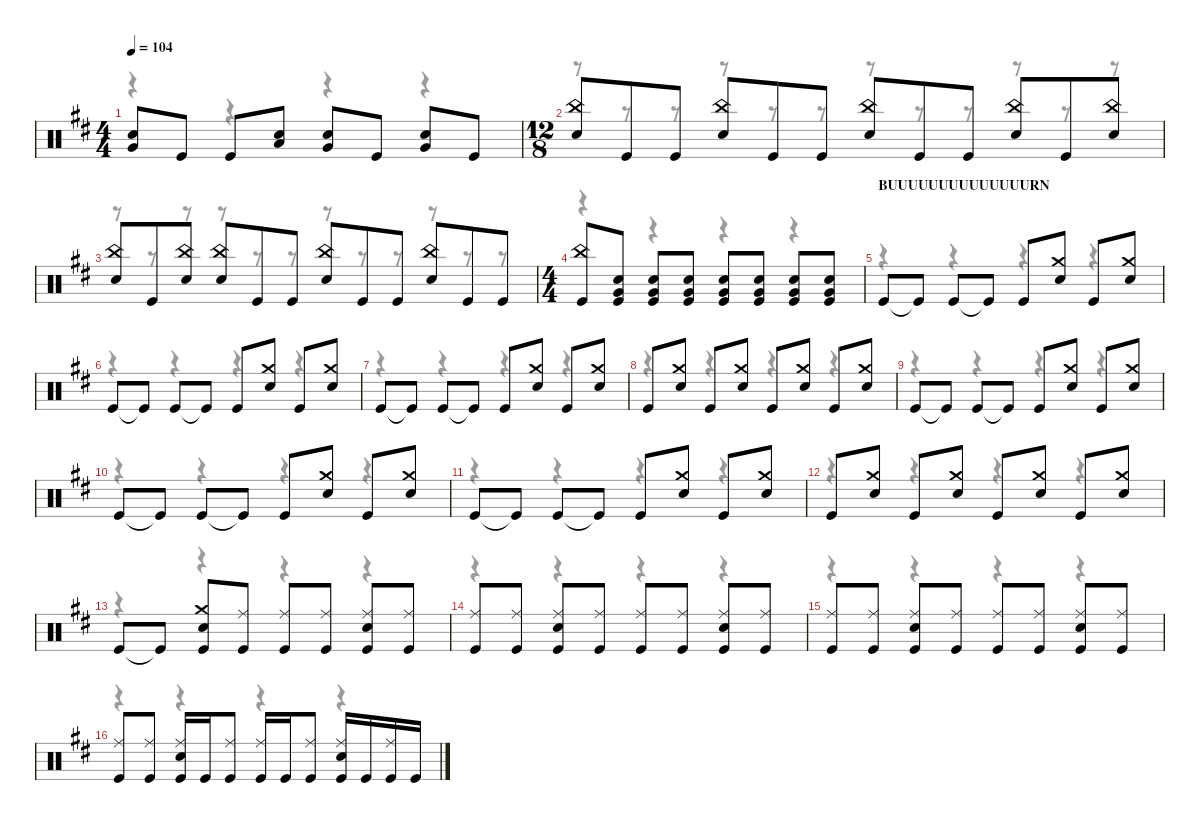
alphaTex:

\defaultSystemsLayout 4
\hideDynamics
\bracketExtendMode nobrackets
\singleTrackTrackNamePolicy hidden
\multiTrackTrackNamePolicy hidden
\firstSystemTrackNameMode fullname
\otherSystemsTrackNameOrientation horizontal
\track ("Drums" "drm.") {instrument percussion}
\staff {score}
\articulation defaults
\voice
\ts (4 4)
\beaming (8 2 2 2 2)
\tempo 104
\clef neutral
\ks bminor
("Snare (hit) 2"{acc forcenatural} "Very Low Tom (hit)"{acc forcenatural}).8{dy f beam Up} "Kick (hit)"{acc forcenatural}.8{beam Up} "Kick (hit)"{acc forcenatural}.8{beam Up} ("Snare (hit) 2"{acc forcenatural} "Low Tom (hit)"{acc forcenatural}).8{beam Up} ("Snare (hit) 2"{acc forcenatural} "Very Low Tom (hit)"{acc forcenatural}).8{beam Up} "Kick (hit)"{acc forcenatural}.8{beam Up} ("Snare (hit) 2"{acc forcenatural} "Very Low Tom (hit)"{acc forcenatural}).8{beam Up} "Kick (hit)"{acc forcenatural}.8{beam Up} |
\ts (12 8)
\beaming (8 3 3 3 3)
("Snare (hit) 2"{acc forcenatural} "China (hit)"{acc forcenatural}).8{beam Up} "Kick (hit)"{acc forcenatural}.8{beam Up} "Kick (hit)"{acc forcenatural}.8{beam Up} ("Snare (hit) 2"{acc forcenatural} "China (hit)"{acc forcenatural}).8{beam Up} "Kick (hit)"{acc forcenatural}.8{beam Up} "Kick (hit)"{acc forcenatural}.8{beam Up} ("Snare (hit) 2"{acc forcenatural} "China (hit)"{acc forcenatural}).8{beam Up} "Kick (hit)"{acc forcenatural}.8{beam Up} "Kick (hit)"{acc forcenatural}.8{beam Up} ("Snare (hit) 2"{acc forcenatural} "China (hit)"{acc forcenatural}).8{beam Up} "Kick (hit)"{acc forcenatural}.8{beam Up} ("Snare (hit) 2"{acc forcenatural} "China (hit)"{acc forcenatural}).8{beam Up} |
("Snare (hit) 2"{acc forcenatural} "China (hit)"{acc forcenatural}).8{beam Up} "Kick (hit)"{acc forcenatural}.8{beam Up} ("Snare (hit) 2"{acc forcenatural} "China (hit)"{acc forcenatural}).8{beam Up} ("Snare (hit) 2"{acc forcenatural} "China (hit)"{acc forcenatural}).8{beam Up} "Kick (hit)"{acc forcenatural}.8{beam Up} "Kick (hit)"{acc forcenatural}.8{beam Up} ("Snare (hit) 2"{acc forcenatural} "China (hit)"{acc forcenatural}).8{beam Up} "Kick (hit)"{acc forcenatural}.8{beam Up} "Kick (hit)"{acc forcenatural}.8{beam Up} ("Snare (hit) 2"{acc forcenatural} "China (hit)"{acc forcenatural}).8{beam Up} "Kick (hit)"{acc forcenatural}.8{beam Up} "Kick (hit)"{acc forcenatural}.8{beam Up} |
\ts (4 4)
\beaming (8 2 2 2 2)
("Kick (hit)"{acc forcenatural} "China (hit)"{acc forcenatural}).8{beam Up} ("Kick (hit)"{acc forcenatural} "Very Low Tom (hit)"{acc forcenatural} "Snare (hit) 2"{acc forcenatural}).8{dy ppp beam Up} ("Kick (hit)"{acc forcenatural} "Very Low Tom (hit)"{acc forcenatural} "Snare (hit) 2"{acc forcenatural}).8{dy pp beam Up} ("Kick (hit)"{acc forcenatural} "Very Low Tom (hit)"{acc forcenatural} "Snare (hit) 2"{acc forcenatural}).8{dy p beam Up} ("Kick (hit)"{acc forcenatural} "Very Low Tom (hit)"{acc forcenatural} "Snare (hit) 2"{acc forcenatural}).8{dy mp beam Up} ("Kick (hit)"{acc forcenatural} "Very Low Tom (hit)"{acc forcenatural} "Snare (hit) 2"{acc forcenatural}).8{dy mf beam Up} ("Kick (hit)"{acc forcenatural} "Very Low Tom (hit)"{acc forcenatural} "Snare (hit) 2"{acc forcenatural}).8{dy f beam Up} ("Kick (hit)"{acc forcenatural} "Very Low Tom (hit)"{acc forcenatural} "Snare (hit) 2"{acc forcenatural}).8{beam Up} |
\section ("" "BUUUUUUUUUUUUUURN")
"Kick (hit)"{acc forcenatural}.8{beam Up} "Kick (hit)"{t acc forcenatural}.8{beam Up} "Kick (hit)"{acc forcenatural}.8{beam Up} "Kick (hit)"{t acc forcenatural}.8{beam Up} "Kick (hit)"{acc forcenatural}.8{beam Up} ("Snare (hit) 2"{acc forcenatural} "Crash medium (hit)"{acc forcenatural}).8{beam Up} "Kick (hit)"{acc forcenatural}.8{beam Up} ("Snare (hit) 2"{acc forcenatural} "Crash medium (hit)"{acc forcenatural}).8{beam Up} |
"Kick (hit)"{acc forcenatural}.8{beam Up} "Kick (hit)"{t acc forcenatural}.8{beam Up} "Kick (hit)"{acc forcenatural}.8{beam Up} "Kick (hit)"{t acc forcenatural}.8{beam Up} "Kick (hit)"{acc forcenatural}.8{beam Up} ("Snare (hit) 2"{acc forcenatural} "Crash medium (hit)"{acc forcenatural}).8{beam Up} "Kick (hit)"{acc forcenatural}.8{beam Up} ("Snare (hit) 2"{acc forcenatural} "Crash medium (hit)"{acc forcenatural}).8{beam Up} |
"Kick (hit)"{acc forcenatural}.8{beam Up} "Kick (hit)"{t acc forcenatural}.8{beam Up} "Kick (hit)"{acc forcenatural}.8{beam Up} "Kick (hit)"{t acc forcenatural}.8{beam Up} "Kick (hit)"{acc forcenatural}.8{beam Up} ("Snare (hit) 2"{acc forcenatural} "Crash medium (hit)"{acc forcenatural}).8{beam Up} "Kick (hit)"{acc forcenatural}.8{beam Up} ("Snare (hit) 2"{acc forcenatural} "Crash medium (hit)"{acc forcenatural}).8{beam Up} |
"Kick (hit)"{acc forcenatural}.8{beam Up} ("Snare (hit) 2"{acc forcenatural} "Crash medium (hit)"{acc forcenatural}).8{beam Up} "Kick (hit)"{acc forcenatural}.8{beam Up} ("Snare (hit) 2"{acc forcenatural} "Crash medium (hit)"{acc forcenatural}).8{beam Up} "Kick (hit)"{acc forcenatural}.8{beam Up} ("Snare (hit) 2"{acc forcenatural} "Crash medium (hit)"{acc forcenatural}).8{beam Up} "Kick (hit)"{acc forcenatural}.8{beam Up} ("Snare (hit) 2"{acc forcenatural} "Crash medium (hit)"{acc forcenatural}).8{beam Up} |
"Kick (hit)"{acc forcenatural}.8{beam Up} "Kick (hit)"{t acc forcenatural}.8{beam Up} "Kick (hit)"{acc forcenatural}.8{beam Up} "Kick (hit)"{t acc forcenatural}.8{beam Up} "Kick (hit)"{acc forcenatural}.8{beam Up} ("Snare (hit) 2"{acc forcenatural} "Crash medium (hit)"{acc forcenatural}).8{beam Up} "Kick (hit)"{acc forcenatural}.8{beam Up} ("Snare (hit) 2"{acc forcenatural} "Crash medium (hit)"{acc forcenatural}).8{beam Up} |
"Kick (hit)"{acc forcenatural}.8{beam Up} "Kick (hit)"{t acc forcenatural}.8{beam Up} "Kick (hit)"{acc forcenatural}.8{beam Up} "Kick (hit)"{t acc forcenatural}.8{beam Up} "Kick (hit)"{acc forcenatural}.8{beam Up} ("Snare (hit) 2"{acc forcenatural} "Crash medium (hit)"{acc forcenatural}).8{beam Up} "Kick (hit)"{acc forcenatural}.8{beam Up} ("Snare (hit) 2"{acc forcenatural} "Crash medium (hit)"{acc forcenatural}).8{beam Up} |
"Kick (hit)"{acc forcenatural}.8{beam Up} "Kick (hit)"{t acc forcenatural}.8{beam Up} "Kick (hit)"{acc forcenatural}.8{beam Up} "Kick (hit)"{t acc forcenatural}.8{beam Up} "Kick (hit)"{acc forcenatural}.8{beam Up} ("Snare (hit) 2"{acc forcenatural} "Crash medium (hit)"{acc forcenatural}).8{beam Up} "Kick (hit)"{acc forcenatural}.8{beam Up} ("Snare (hit) 2"{acc forcenatural} "Crash medium (hit)"{acc forcenatural}).8{beam Up} |
"Kick (hit)"{acc forcenatural}.8{beam Up} ("Snare (hit) 2"{acc forcenatural} "Crash medium (hit)"{acc forcenatural}).8{beam Up} "Kick (hit)"{acc forcenatural}.8{beam Up} ("Snare (hit) 2"{acc forcenatural} "Crash medium (hit)"{acc forcenatural}).8{beam Up} "Kick (hit)"{acc forcenatural}.8{beam Up} ("Snare (hit) 2"{acc forcenatural} "Crash medium (hit)"{acc forcenatural}).8{beam Up} "Kick (hit)"{acc forcenatural}.8{beam Up} ("Snare (hit) 2"{acc forcenatural} "Crash medium (hit)"{acc forcenatural}).8{beam Up} |
"Kick (hit)"{acc forcenatural}.8{beam Up} "Kick (hit)"{t acc forcenatural}.8{beam Up} ("Kick (hit)"{acc forcenatural} "Crash medium (hit)"{acc forcenatural} "Snare (hit) 2"{acc forcenatural}).8{beam Up} ("Kick (hit)"{acc forcenatural} "Ride (middle)"{acc forcenatural}).8{beam Up} ("Kick (hit)"{acc forcenatural} "Ride (middle)"{acc forcenatural}).8{beam Up} ("Kick (hit)"{acc forcenatural} "Ride (middle)"{acc forcenatural}).8{beam Up} ("Kick (hit)"{acc forcenatural} "Ride (middle)"{acc forcenatural} "Snare (hit) 2"{acc forcenatural}).8{beam Up} ("Kick (hit)"{acc forcenatural} "Ride (middle)"{acc forcenatural}).8{beam Up} |
("Ride (middle)"{acc forcenatural} "Kick (hit)"{acc forcenatural}).8{beam Up} ("Ride (middle)"{acc forcenatural} "Kick (hit)"{acc forcenatural}).8{beam Up} ("Ride (middle)"{acc forcenatural} "Snare (hit) 2"{acc forcenatural} "Kick (hit)"{acc forcenatural}).8{beam Up} ("Ride (middle)"{acc forcenatural} "Kick (hit)"{acc forcenatural}).8{beam Up} ("Ride (middle)"{acc forcenatural} "Kick (hit)"{acc forcenatural}).8{beam Up} ("Ride (middle)"{acc forcenatural} "Kick (hit)"{acc forcenatural}).8{beam Up} ("Snare (hit) 2"{acc forcenatural} "Kick (hit)"{acc forcenatural} "Ride (middle)"{acc forcenatural}).8{beam Up} ("Kick (hit)"{acc forcenatural} "Ride (middle)"{acc forcenatural}).8{beam Up} |
("Ride (middle)"{acc forcenatural} "Kick (hit)"{acc forcenatural}).8{beam Up} ("Ride (middle)"{acc forcenatural} "Kick (hit)"{acc forcenatural}).8{beam Up} ("Ride (middle)"{acc forcenatural} "Snare (hit) 2"{acc forcenatural} "Kick (hit)"{acc forcenatural}).8{beam Up} ("Ride (middle)"{acc forcenatural} "Kick (hit)"{acc forcenatural}).8{beam Up} ("Ride (middle)"{acc forcenatural} "Kick (hit)"{acc forcenatural}).8{beam Up} ("Ride (middle)"{acc forcenatural} "Kick (hit)"{acc forcenatural}).8{beam Up} ("Snare (hit) 2"{acc forcenatural} "Kick (hit)"{acc forcenatural} "Ride (middle)"{acc forcenatural}).8{beam Up} ("Kick (hit)"{acc forcenatural} "Ride (middle)"{acc forcenatural}).8{beam Up} |
("Ride (middle)"{acc forcenatural} "Kick (hit)"{acc forcenatural}).8{beam Up} ("Ride (middle)"{acc forcenatural} "Kick (hit)"{acc forcenatural}).8{beam Up} ("Ride (middle)"{acc forcenatural} "Snare (hit) 2"{acc forcenatural} "Kick (hit)"{acc forcenatural}).16{beam Up} "Kick (hit)"{acc forcenatural}.16{beam Up} ("Ride (middle)"{acc forcenatural} "Kick (hit)"{acc forcenatural}).8{beam Up} ("Ride (middle)"{acc forcenatural} "Kick (hit)"{acc forcenatural}).16{beam Up} "Kick (hit)"{acc forcenatural}.16{beam Up} ("Ride (middle)"{acc forcenatural} "Kick (hit)"{acc forcenatural}).8{beam Up} ("Snare (hit) 2"{acc forcenatural} "Kick (hit)"{acc forcenatural} "Ride (middle)"{acc forcenatural}).16{beam Up} "Kick (hit)"{acc forcenatural}.16{beam Up} ("Kick (hit)"{acc forcenatural} "Ride (middle)"{acc forcenatural}).16{beam Up} "Kick (hit)"{acc forcenatural}.16{beam Up}
\voice
\clef neutral
\ottava regular
\simile none
\ks bminor
r.4{dy mf beam Down} r.4{beam Down} r.4{beam Down} r.4{beam Down} |
r.8{beam Down} r.8{beam Down} r.8{beam Down} r.8{beam Down} r.8{beam Down} r.8{beam Down} r.8{beam Down} r.8{beam Down} r.8{beam Down} r.8{beam Down} r.8{beam Down} r.8{beam Down} |
r.8{beam Down} r.8{beam Down} r.8{beam Down} r.8{beam Down} r.8{beam Down} r.8{beam Down} r.8{beam Down} r.8{beam Down} r.8{beam Down} r.8{beam Down} r.8{beam Down} r.8{beam Down} |
r.4{beam Down} r.4{beam Down} r.4{beam Down} r.4{beam Down} |
r.4{beam Down} r.4{beam Down} r.4{beam Down} r.4{beam Down} |
r.4{beam Down} r.4{beam Down} r.4{beam Down} r.4{beam Down} |
r.4{beam Down} r.4{beam Down} r.4{beam Down} r.4{beam Down} |
r.4{beam Down} r.4{beam Down} r.4{beam Down} r.4{beam Down} |
r.4{beam Down} r.4{beam Down} r.4{beam Down} r.4{beam Down} |
r.4{beam Down} r.4{beam Down} r.4{beam Down} r.4{beam Down} |
r.4{beam Down} r.4{beam Down} r.4{beam Down} r.4{beam Down} |
r.4{beam Down} r.4{beam Down} r.4{beam Down} r.4{beam Down} |
r.4{beam Down} r.4{beam Down} r.4{beam Down} r.4{beam Down} |
r.4{beam Down} r.4{beam Down} r.4{beam Down} r.4{beam Down} |
r.4{beam Down} r.4{beam Down} r.4{beam Down} r.4{beam Down} |
r.4{beam Down} r.4{beam Down} r.4{beam Down} r.4{beam Down}
